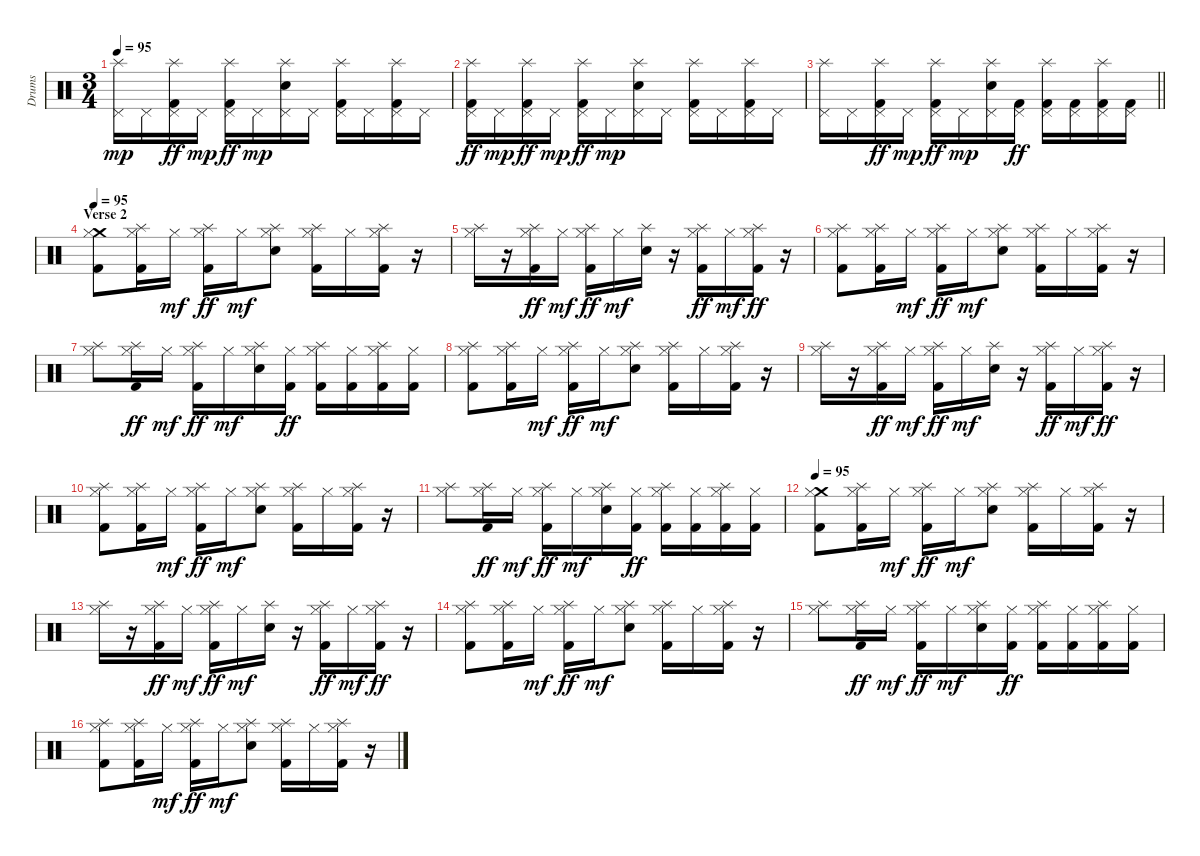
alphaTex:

\track ("Drums" "Drums") {instrument percussion}
\staff {score}
\articulation defaults
\ts (3 4)
\tempo 95
\clef neutral
\ks c
("Splash (hit)" "Pedal Hi-Hat (hit)").16{dy mp} "Pedal Hi-Hat (hit)".16 ("Splash (hit)" "Pedal Hi-Hat (hit)" "Kick (hit) 2").16{dy ff} "Pedal Hi-Hat (hit)".16{dy mp} ("Splash (hit)" "Pedal Hi-Hat (hit)" "Kick (hit) 2").16{dy ff} "Pedal Hi-Hat (hit)".16{dy mp} ("Splash (hit)" "Pedal Hi-Hat (hit)" "Electric Snare (hit)").16 "Pedal Hi-Hat (hit)".16 ("Splash (hit)" "Pedal Hi-Hat (hit)" "Kick (hit) 2").16 "Pedal Hi-Hat (hit)".16 ("Splash (hit)" "Pedal Hi-Hat (hit)" "Kick (hit) 2").16 "Pedal Hi-Hat (hit)".16 |
("Splash (hit)" "Pedal Hi-Hat (hit)" "Kick (hit) 2").16{dy ff} "Pedal Hi-Hat (hit)".16{dy mp} ("Splash (hit)" "Pedal Hi-Hat (hit)" "Kick (hit) 2").16{dy ff} "Pedal Hi-Hat (hit)".16{dy mp} ("Splash (hit)" "Pedal Hi-Hat (hit)" "Kick (hit) 2").16{dy ff} "Pedal Hi-Hat (hit)".16{dy mp} ("Splash (hit)" "Pedal Hi-Hat (hit)" "Electric Snare (hit)").16 "Pedal Hi-Hat (hit)".16 ("Splash (hit)" "Pedal Hi-Hat (hit)" "Kick (hit) 2").16 "Pedal Hi-Hat (hit)".16 ("Splash (hit)" "Pedal Hi-Hat (hit)" "Kick (hit) 2").16 "Pedal Hi-Hat (hit)".16 |
\barLineRight lightlight
("Splash (hit)" "Pedal Hi-Hat (hit)").16 "Pedal Hi-Hat (hit)".16 ("Splash (hit)" "Pedal Hi-Hat (hit)" "Kick (hit) 2").16{dy ff} "Pedal Hi-Hat (hit)".16{dy mp} ("Splash (hit)" "Pedal Hi-Hat (hit)" "Kick (hit) 2").16{dy ff} "Pedal Hi-Hat (hit)".16{dy mp} ("Splash (hit)" "Pedal Hi-Hat (hit)" "Electric Snare (hit)").16 ("Pedal Hi-Hat (hit)" "Kick (hit) 2").16{dy ff} ("Splash (hit)" "Pedal Hi-Hat (hit)" "Kick (hit) 2").16 ("Pedal Hi-Hat (hit)" "Kick (hit) 2").16 ("Splash (hit)" "Pedal Hi-Hat (hit)" "Kick (hit) 2").16 ("Pedal Hi-Hat (hit)" "Kick (hit) 2").16 |
\section ("" "Verse 2")
\tempo 95
("Crash medium (hit)" "Hi-Hat (closed)" "Kick (hit) 2").8 ("Splash (hit)" "Hi-Hat (closed)" "Kick (hit) 2").16 "Hi-Hat (closed)".16{dy mf} ("Splash (hit)" "Hi-Hat (closed)" "Kick (hit) 2").16{dy ff} "Hi-Hat (closed)".16{dy mf} ("Splash (hit)" "Hi-Hat (closed)" "Electric Snare (hit)").8 ("Splash (hit)" "Hi-Hat (closed)" "Kick (hit) 2").16 "Hi-Hat (closed)".16 ("Splash (hit)" "Hi-Hat (closed)" "Kick (hit) 2").16 r.16 |
("Splash (hit)" "Hi-Hat (closed)").16 r.16 ("Splash (hit)" "Hi-Hat (closed)" "Kick (hit) 2").16{dy ff} "Hi-Hat (closed)".16{dy mf} ("Splash (hit)" "Hi-Hat (closed)" "Kick (hit) 2").16{dy ff} "Hi-Hat (closed)".16{dy mf} ("Splash (hit)" "Electric Snare (hit)").16 r.16 ("Splash (hit)" "Hi-Hat (closed)" "Kick (hit) 2").16{dy ff} "Hi-Hat (closed)".16{dy mf} ("Splash (hit)" "Hi-Hat (closed)" "Kick (hit) 2").16{dy ff} r.16 |
("Splash (hit)" "Hi-Hat (closed)" "Kick (hit) 2").8 ("Splash (hit)" "Hi-Hat (closed)" "Kick (hit) 2").16 "Hi-Hat (closed)".16{dy mf} ("Splash (hit)" "Hi-Hat (closed)" "Kick (hit) 2").16{dy ff} "Hi-Hat (closed)".16{dy mf} ("Splash (hit)" "Hi-Hat (closed)" "Electric Snare (hit)").8 ("Splash (hit)" "Hi-Hat (closed)" "Kick (hit) 2").16 "Hi-Hat (closed)".16 ("Splash (hit)" "Hi-Hat (closed)" "Kick (hit) 2").16 r.16 |
("Splash (hit)" "Hi-Hat (closed)").8 ("Splash (hit)" "Hi-Hat (closed)" "Kick (hit) 2").16{dy ff} "Hi-Hat (closed)".16{dy mf} ("Splash (hit)" "Hi-Hat (closed)" "Kick (hit) 2").16{dy ff} "Hi-Hat (closed)".16{dy mf} ("Splash (hit)" "Hi-Hat (closed)" "Electric Snare (hit)").16 ("Hi-Hat (closed)" "Kick (hit) 2").16{dy ff} ("Splash (hit)" "Hi-Hat (closed)" "Kick (hit) 2").16 ("Hi-Hat (closed)" "Kick (hit) 2").16 ("Splash (hit)" "Hi-Hat (closed)" "Kick (hit) 2").16 ("Hi-Hat (closed)" "Kick (hit) 2").16 |
("Splash (hit)" "Hi-Hat (closed)" "Kick (hit) 2").8 ("Splash (hit)" "Hi-Hat (closed)" "Kick (hit) 2").16 "Hi-Hat (closed)".16{dy mf} ("Splash (hit)" "Hi-Hat (closed)" "Kick (hit) 2").16{dy ff} "Hi-Hat (closed)".16{dy mf} ("Splash (hit)" "Hi-Hat (closed)" "Electric Snare (hit)").8 ("Splash (hit)" "Hi-Hat (closed)" "Kick (hit) 2").16 "Hi-Hat (closed)".16 ("Splash (hit)" "Hi-Hat (closed)" "Kick (hit) 2").16 r.16 |
("Splash (hit)" "Hi-Hat (closed)").16 r.16 ("Splash (hit)" "Hi-Hat (closed)" "Kick (hit) 2").16{dy ff} "Hi-Hat (closed)".16{dy mf} ("Splash (hit)" "Hi-Hat (closed)" "Kick (hit) 2").16{dy ff} "Hi-Hat (closed)".16{dy mf} ("Splash (hit)" "Electric Snare (hit)").16 r.16 ("Splash (hit)" "Hi-Hat (closed)" "Kick (hit) 2").16{dy ff} "Hi-Hat (closed)".16{dy mf} ("Splash (hit)" "Hi-Hat (closed)" "Kick (hit) 2").16{dy ff} r.16 |
("Splash (hit)" "Hi-Hat (closed)" "Kick (hit) 2").8 ("Splash (hit)" "Hi-Hat (closed)" "Kick (hit) 2").16 "Hi-Hat (closed)".16{dy mf} ("Splash (hit)" "Hi-Hat (closed)" "Kick (hit) 2").16{dy ff} "Hi-Hat (closed)".16{dy mf} ("Splash (hit)" "Hi-Hat (closed)" "Electric Snare (hit)").8 ("Splash (hit)" "Hi-Hat (closed)" "Kick (hit) 2").16 "Hi-Hat (closed)".16 ("Splash (hit)" "Hi-Hat (closed)" "Kick (hit) 2").16 r.16 |
("Splash (hit)" "Hi-Hat (closed)").8 ("Splash (hit)" "Hi-Hat (closed)" "Kick (hit) 2").16{dy ff} "Hi-Hat (closed)".16{dy mf} ("Splash (hit)" "Hi-Hat (closed)" "Kick (hit) 2").16{dy ff} "Hi-Hat (closed)".16{dy mf} ("Splash (hit)" "Hi-Hat (closed)" "Electric Snare (hit)").16 ("Hi-Hat (closed)" "Kick (hit) 2").16{dy ff} ("Splash (hit)" "Hi-Hat (closed)" "Kick (hit) 2").16 ("Hi-Hat (closed)" "Kick (hit) 2").16 ("Splash (hit)" "Hi-Hat (closed)" "Kick (hit) 2").16 ("Hi-Hat (closed)" "Kick (hit) 2").16 |
\tempo 95
("Crash medium (hit)" "Hi-Hat (closed)" "Kick (hit) 2").8 ("Splash (hit)" "Hi-Hat (closed)" "Kick (hit) 2").16 "Hi-Hat (closed)".16{dy mf} ("Splash (hit)" "Hi-Hat (closed)" "Kick (hit) 2").16{dy ff} "Hi-Hat (closed)".16{dy mf} ("Splash (hit)" "Hi-Hat (closed)" "Electric Snare (hit)").8 ("Splash (hit)" "Hi-Hat (closed)" "Kick (hit) 2").16 "Hi-Hat (closed)".16 ("Splash (hit)" "Hi-Hat (closed)" "Kick (hit) 2").16 r.16 |
("Splash (hit)" "Hi-Hat (closed)").16 r.16 ("Splash (hit)" "Hi-Hat (closed)" "Kick (hit) 2").16{dy ff} "Hi-Hat (closed)".16{dy mf} ("Splash (hit)" "Hi-Hat (closed)" "Kick (hit) 2").16{dy ff} "Hi-Hat (closed)".16{dy mf} ("Splash (hit)" "Electric Snare (hit)").16 r.16 ("Splash (hit)" "Hi-Hat (closed)" "Kick (hit) 2").16{dy ff} "Hi-Hat (closed)".16{dy mf} ("Splash (hit)" "Hi-Hat (closed)" "Kick (hit) 2").16{dy ff} r.16 |
("Splash (hit)" "Hi-Hat (closed)" "Kick (hit) 2").8 ("Splash (hit)" "Hi-Hat (closed)" "Kick (hit) 2").16 "Hi-Hat (closed)".16{dy mf} ("Splash (hit)" "Hi-Hat (closed)" "Kick (hit) 2").16{dy ff} "Hi-Hat (closed)".16{dy mf} ("Splash (hit)" "Hi-Hat (closed)" "Electric Snare (hit)").8 ("Splash (hit)" "Hi-Hat (closed)" "Kick (hit) 2").16 "Hi-Hat (closed)".16 ("Splash (hit)" "Hi-Hat (closed)" "Kick (hit) 2").16 r.16 |
("Splash (hit)" "Hi-Hat (closed)").8 ("Splash (hit)" "Hi-Hat (closed)" "Kick (hit) 2").16{dy ff} "Hi-Hat (closed)".16{dy mf} ("Splash (hit)" "Hi-Hat (closed)" "Kick (hit) 2").16{dy ff} "Hi-Hat (closed)".16{dy mf} ("Splash (hit)" "Hi-Hat (closed)" "Electric Snare (hit)").16 ("Hi-Hat (closed)" "Kick (hit) 2").16{dy ff} ("Splash (hit)" "Hi-Hat (closed)" "Kick (hit) 2").16 ("Hi-Hat (closed)" "Kick (hit) 2").16 ("Splash (hit)" "Hi-Hat (closed)" "Kick (hit) 2").16 ("Hi-Hat (closed)" "Kick (hit) 2").16 |
("Splash (hit)" "Hi-Hat (closed)" "Kick (hit) 2").8 ("Splash (hit)" "Hi-Hat (closed)" "Kick (hit) 2").16 "Hi-Hat (closed)".16{dy mf} ("Splash (hit)" "Hi-Hat (closed)" "Kick (hit) 2").16{dy ff} "Hi-Hat (closed)".16{dy mf} ("Splash (hit)" "Hi-Hat (closed)" "Electric Snare (hit)").8 ("Splash (hit)" "Hi-Hat (closed)" "Kick (hit) 2").16 "Hi-Hat (closed)".16 ("Splash (hit)" "Hi-Hat (closed)" "Kick (hit) 2").16 r.16
